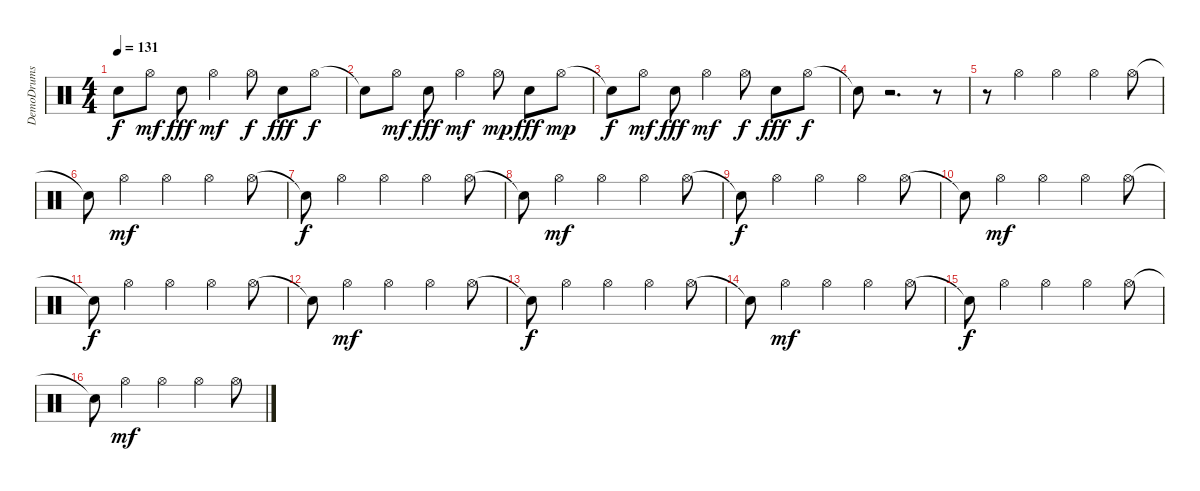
\track ("DemoDrums" "DemoDrums") {instrument percussion}
\staff {score}
\articulation defaults
\ts (4 4)
\tempo 131
\clef neutral
\ks c "Snare (hit)"{t}.8{dy f} "Hi-Hat (open)".8{dy mf} "Electric Snare (hit)".8{dy fff} "Hi-Hat (open)".4{dy mf} "Hi-Hat (open)".8{dy f} "Electric Snare (hit)".8{dy fff} "Hi-Hat (open)".8{dy f}
|
"Snare (hit)"{t}.8 "Hi-Hat (open)".8{dy mf} "Electric Snare (hit)".8{dy fff} "Hi-Hat (open)".4{dy mf} "Hi-Hat (open)".8{dy mp} "Electric Snare (hit)".8{dy fff} "Hi-Hat (open)".8{dy mp} |
"Snare (hit)"{t}.8{dy f} "Hi-Hat (open)".8{dy mf} "Electric Snare (hit)".8{dy fff} "Hi-Hat (open)".4{dy mf} "Hi-Hat (open)".8{dy f} "Electric Snare (hit)".8{dy fff} "Hi-Hat (open)".8{dy f} |
"Snare (hit)"{t}.8 r.2{d} r.8 |
r.8 "Hi-Hat (open)".4 "Hi-Hat (open)".4 "Hi-Hat (open)".4 "Hi-Hat (open)".8 |
"Snare (hit)"{t}.8 "Hi-Hat (open)".4{dy mf} "Hi-Hat (open)".4 "Hi-Hat (open)".4 "Hi-Hat (open)".8 |
"Snare (hit)"{t}.8{dy f} "Hi-Hat (open)".4 "Hi-Hat (open)".4 "Hi-Hat (open)".4 "Hi-Hat (open)".8 |
"Snare (hit)"{t}.8 "Hi-Hat (open)".4{dy mf} "Hi-Hat (open)".4 "Hi-Hat (open)".4 "Hi-Hat (open)".8 |
"Snare (hit)"{t}.8{dy f} "Hi-Hat (open)".4 "Hi-Hat (open)".4 "Hi-Hat (open)".4 "Hi-Hat (open)".8 |
"Snare (hit)"{t}.8 "Hi-Hat (open)".4{dy mf} "Hi-Hat (open)".4 "Hi-Hat (open)".4 "Hi-Hat (open)".8 |
"Snare (hit)"{t}.8{dy f} "Hi-Hat (open)".4 "Hi-Hat (open)".4 "Hi-Hat (open)".4 "Hi-Hat (open)".8 |
"Snare (hit)"{t}.8 "Hi-Hat (open)".4{dy mf} "Hi-Hat (open)".4 "Hi-Hat (open)".4 "Hi-Hat (open)".8 |
"Snare (hit)"{t}.8{dy f} "Hi-Hat (open)".4 "Hi-Hat (open)".4 "Hi-Hat (open)".4 "Hi-Hat (open)".8 |
"Snare (hit)"{t}.8 "Hi-Hat (open)".4{dy mf} "Hi-Hat (open)".4 "Hi-Hat (open)".4 "Hi-Hat (open)".8 |
"Snare (hit)"{t}.8{dy f} "Hi-Hat (open)".4 "Hi-Hat (open)".4 "Hi-Hat (open)".4 "Hi-Hat (open)".8 |
"Snare (hit)"{t}.8 "Hi-Hat (open)".4{dy mf} "Hi-Hat (open)".4 "Hi-Hat (open)".4 "Hi-Hat (open)".8
